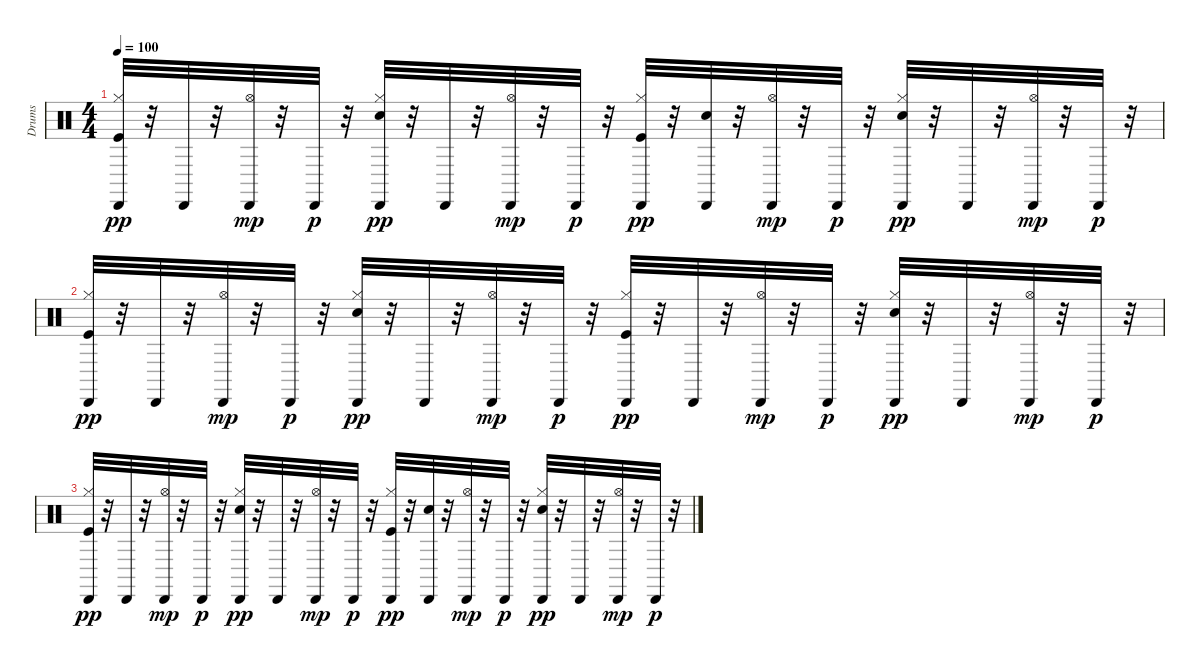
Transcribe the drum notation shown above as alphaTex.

\track ("Drums" "Drums") {instrument percussion}
\staff {score}
\articulation defaults
\ts (4 4)
\tempo 100
\clef neutral
\ks c
("Kick (hit)" "Hi-Hat (closed)" "Cabasa (hit)").32{dy pp} r.32 "Cabasa (hit)".32 r.32 ("Hi-Hat (open)" "Cabasa (hit)").32{dy mp} r.32 "Cabasa (hit)".32{dy p} r.32 ("Electric Snare (hit)" "Hi-Hat (closed)" "Cabasa (hit)").32{dy pp} r.32 "Cabasa (hit)".32 r.32 ("Hi-Hat (open)" "Cabasa (hit)").32{dy mp} r.32 "Cabasa (hit)".32{dy p} r.32 ("Kick (hit)" "Hi-Hat (closed)" "Cabasa (hit)").32{dy pp} r.32 ("Electric Snare (hit)" "Cabasa (hit)").32 r.32 ("Hi-Hat (open)" "Cabasa (hit)").32{dy mp} r.32 "Cabasa (hit)".32{dy p} r.32 ("Electric Snare (hit)" "Hi-Hat (closed)" "Cabasa (hit)").32{dy pp} r.32 "Cabasa (hit)".32 r.32 ("Hi-Hat (open)" "Cabasa (hit)").32{dy mp} r.32 "Cabasa (hit)".32{dy p} r.32 |
("Kick (hit)" "Hi-Hat (closed)" "Cabasa (hit)").32{dy pp} r.32 "Cabasa (hit)".32 r.32 ("Hi-Hat (open)" "Cabasa (hit)").32{dy mp} r.32 "Cabasa (hit)".32{dy p} r.32 ("Electric Snare (hit)" "Hi-Hat (closed)" "Cabasa (hit)").32{dy pp} r.32 "Cabasa (hit)".32 r.32 ("Hi-Hat (open)" "Cabasa (hit)").32{dy mp} r.32 "Cabasa (hit)".32{dy p} r.32 ("Kick (hit)" "Hi-Hat (closed)" "Cabasa (hit)").32{dy pp} r.32 "Cabasa (hit)".32 r.32 ("Hi-Hat (open)" "Cabasa (hit)").32{dy mp} r.32 "Cabasa (hit)".32{dy p} r.32 ("Electric Snare (hit)" "Hi-Hat (closed)" "Cabasa (hit)").32{dy pp} r.32 "Cabasa (hit)".32 r.32 ("Hi-Hat (open)" "Cabasa (hit)").32{dy mp} r.32 "Cabasa (hit)".32{dy p} r.32 |
("Kick (hit)" "Hi-Hat (closed)" "Cabasa (hit)").32{dy pp} r.32 "Cabasa (hit)".32 r.32 ("Hi-Hat (open)" "Cabasa (hit)").32{dy mp} r.32 "Cabasa (hit)".32{dy p} r.32 ("Electric Snare (hit)" "Hi-Hat (closed)" "Cabasa (hit)").32{dy pp} r.32 "Cabasa (hit)".32 r.32 ("Hi-Hat (open)" "Cabasa (hit)").32{dy mp} r.32 "Cabasa (hit)".32{dy p} r.32 ("Kick (hit)" "Hi-Hat (closed)" "Cabasa (hit)").32{dy pp} r.32 ("Electric Snare (hit)" "Cabasa (hit)").32 r.32 ("Hi-Hat (open)" "Cabasa (hit)").32{dy mp} r.32 "Cabasa (hit)".32{dy p} r.32 ("Electric Snare (hit)" "Hi-Hat (closed)" "Cabasa (hit)").32{dy pp} r.32 "Cabasa (hit)".32 r.32 ("Hi-Hat (open)" "Cabasa (hit)").32{dy mp} r.32 "Cabasa (hit)".32{dy p} r.32
